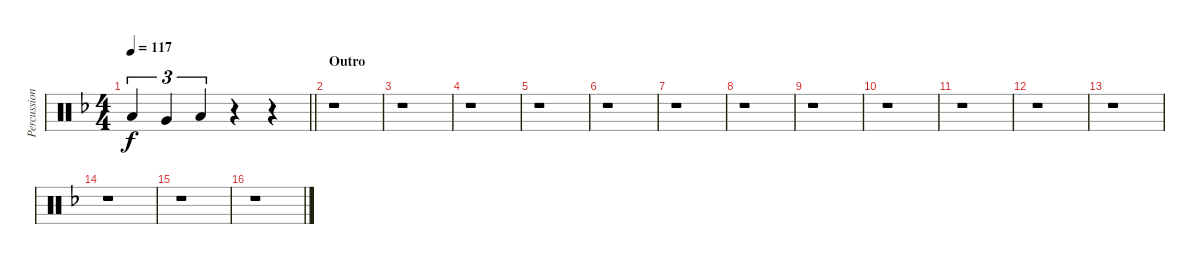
\track ("Percussions" "Percussion") {instrument percussion}
\staff {score}
\articulation defaults
\ts (4 4)
\tempo 117
\clef neutral
\barLineRight lightlight
\ks f "Low Tom (hit)".4{tu (3 2) dy f} "Very Low Tom (hit)".4{tu (3 2)} "Low Floor Tom (hit)".4{tu (3 2)}
r.4 r.4 |
\section ("" "Outro")
r.1 |
r.1 |
r.1 |
r.1 |
r.1 |
r.1 |
r.1 |
r.1 |
r.1 |
r.1 |
r.1 |
r.1 |
r.1 |
r.1 |
r.1
